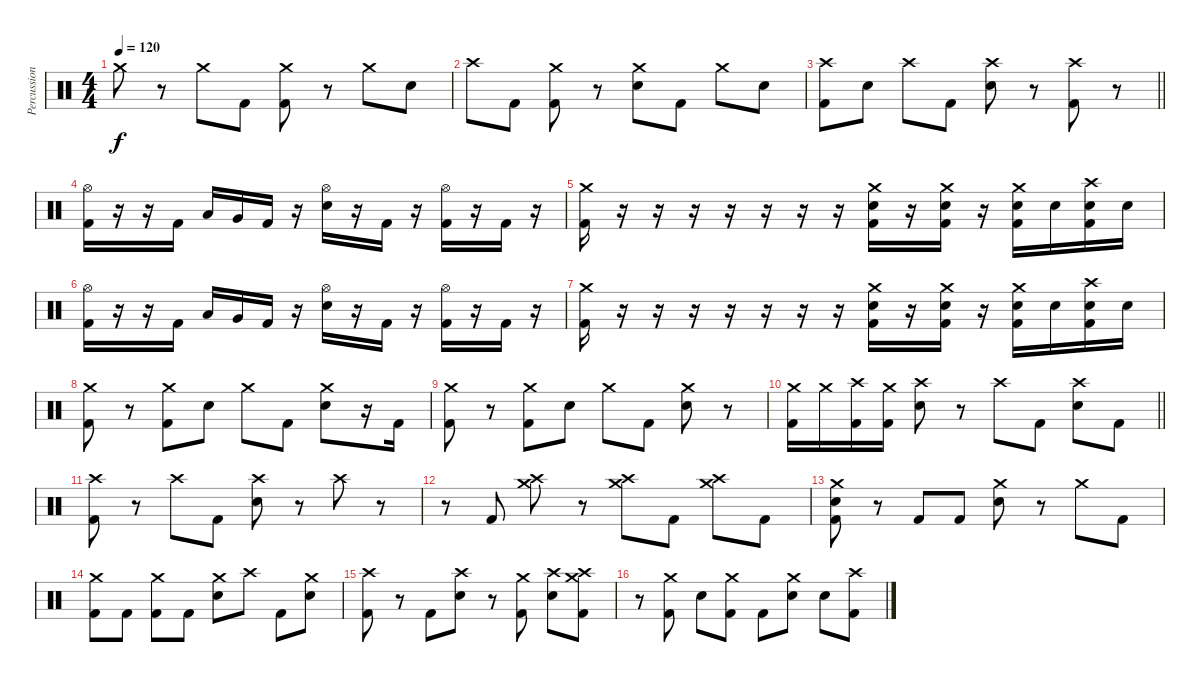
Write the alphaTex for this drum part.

\track ("Percussion" "Percussion") {instrument percussion}
\staff {score}
\articulation defaults
\ts (4 4)
\tempo 120
\clef neutral
\ks c "Crash medium (hit)".8{dy f}
r.8 "Crash medium (hit)".8 "Kick (hit) 2".8 ("Crash medium (hit)" "Kick (hit) 2").8 r.8 "Crash medium (hit)".8 "Electric Snare (hit)".8 |
"Crash high (hit)".8 "Kick (hit) 2".8 ("Crash medium (hit)" "Kick (hit) 2").8 r.8 ("Crash medium (hit)" "Electric Snare (hit)").8 "Kick (hit) 2".8 "Crash medium (hit)".8 "Electric Snare (hit)".8 |
\barLineRight lightlight
("Crash high (hit)" "Kick (hit) 2").8 "Electric Snare (hit)".8 "Crash high (hit)".8 "Kick (hit) 2".8 ("Crash high (hit)" "Electric Snare (hit)").8 r.8 ("Crash high (hit)" "Kick (hit) 2").8 r.8 |
\section ("" "")
("Hi-Hat (open)" "Kick (hit) 2").16 r.16 r.16 "Kick (hit) 2".16 "Low Tom (hit)".16 "Very Low Tom (hit)".16 "Kick (hit) 2".16 r.16 ("Hi-Hat (open)" "Electric Snare (hit)").16 r.16 "Kick (hit) 2".16 r.16 ("Hi-Hat (open)" "Kick (hit) 2").16 r.16 "Kick (hit) 2".16 r.16 |
("Crash medium (hit)" "Kick (hit) 2").16 r.16 r.16 r.16 r.16 r.16 r.16 r.16 ("Crash medium (hit)" "Electric Snare (hit)" "Kick (hit) 2").16 r.16 ("Crash medium (hit)" "Electric Snare (hit)" "Kick (hit) 2").16 r.16 ("Crash medium (hit)" "Electric Snare (hit)" "Kick (hit) 2").16 "Electric Snare (hit)".16 ("Crash high (hit)" "Electric Snare (hit)" "Kick (hit) 2").16 "Electric Snare (hit)".16 |
("Hi-Hat (open)" "Kick (hit) 2").16 r.16 r.16 "Kick (hit) 2".16 "Low Tom (hit)".16 "Very Low Tom (hit)".16 "Kick (hit) 2".16 r.16 ("Hi-Hat (open)" "Electric Snare (hit)").16 r.16 "Kick (hit) 2".16 r.16 ("Hi-Hat (open)" "Kick (hit) 2").16 r.16 "Kick (hit) 2".16 r.16 |
("Crash medium (hit)" "Kick (hit) 2").16 r.16 r.16 r.16 r.16 r.16 r.16 r.16 ("Crash medium (hit)" "Electric Snare (hit)" "Kick (hit) 2").16 r.16 ("Crash medium (hit)" "Electric Snare (hit)" "Kick (hit) 2").16 r.16 ("Crash medium (hit)" "Electric Snare (hit)" "Kick (hit) 2").16 "Electric Snare (hit)".16 ("Crash high (hit)" "Electric Snare (hit)" "Kick (hit) 2").16 "Electric Snare (hit)".16 |
("Crash medium (hit)" "Kick (hit) 2").8 r.8 ("Crash medium (hit)" "Kick (hit) 2").8 "Electric Snare (hit)".8 "Crash medium (hit)".8 "Kick (hit) 2".8 ("Crash medium (hit)" "Electric Snare (hit)").8 r.16 "Kick (hit) 2".16 |
("Crash medium (hit)" "Kick (hit) 2").8 r.8 ("Crash medium (hit)" "Kick (hit) 2").8 "Electric Snare (hit)".8 "Crash medium (hit)".8 "Kick (hit) 2".8 ("Crash medium (hit)" "Electric Snare (hit)").8 r.8 |
\barLineRight lightlight
("Crash medium (hit)" "Kick (hit) 2").16 "Crash medium (hit)".16 ("Crash high (hit)" "Kick (hit) 2").16 ("Crash medium (hit)" "Kick (hit) 2").16 ("Crash high (hit)" "Electric Snare (hit)").8 r.8 "Crash high (hit)".8 "Kick (hit) 2".8 ("Crash high (hit)" "Electric Snare (hit)").8 "Kick (hit) 2".8 |
\section ("" "")
("Crash high (hit)" "Kick (hit) 2").8 r.8 "Crash high (hit)".8 "Kick (hit) 2".8 ("Crash high (hit)" "Electric Snare (hit)").8 r.8 "Crash high (hit)".8 r.8 |
r.8 "Kick (hit) 2".8 ("Crash high (hit)" "Crash medium (hit)").8 r.8 ("Crash high (hit)" "Crash medium (hit)").8 "Kick (hit) 2".8 ("Crash high (hit)" "Crash medium (hit)").8 "Kick (hit) 2".8 |
("Crash medium (hit)" "Electric Snare (hit)" "Kick (hit) 2").8 r.8 "Kick (hit) 2".8 "Kick (hit) 2".8 ("Crash medium (hit)" "Electric Snare (hit)").8 r.8 "Crash medium (hit)".8 "Kick (hit) 2".8 |
("Crash medium (hit)" "Kick (hit) 2").8 "Kick (hit) 2".8 ("Crash medium (hit)" "Kick (hit) 2").8 "Kick (hit) 2".8 ("Crash medium (hit)" "Electric Snare (hit)").8 "Crash high (hit)".8 "Kick (hit) 2".8 ("Crash medium (hit)" "Electric Snare (hit)").8 |
("Crash high (hit)" "Kick (hit) 2").8 r.8 "Kick (hit) 2".8 ("Crash high (hit)" "Electric Snare (hit)").8 r.8 ("Crash medium (hit)" "Kick (hit) 2").8 ("Crash high (hit)" "Electric Snare (hit)").8 ("Crash medium (hit)" "Crash high (hit)" "Kick (hit) 2").8 |
r.8 ("Crash medium (hit)" "Kick (hit) 2").8 "Electric Snare (hit)".8 ("Crash medium (hit)" "Kick (hit) 2").8 "Kick (hit) 2".8 ("Crash medium (hit)" "Electric Snare (hit)").8 "Electric Snare (hit)".8 ("Crash high (hit)" "Kick (hit) 2").8
